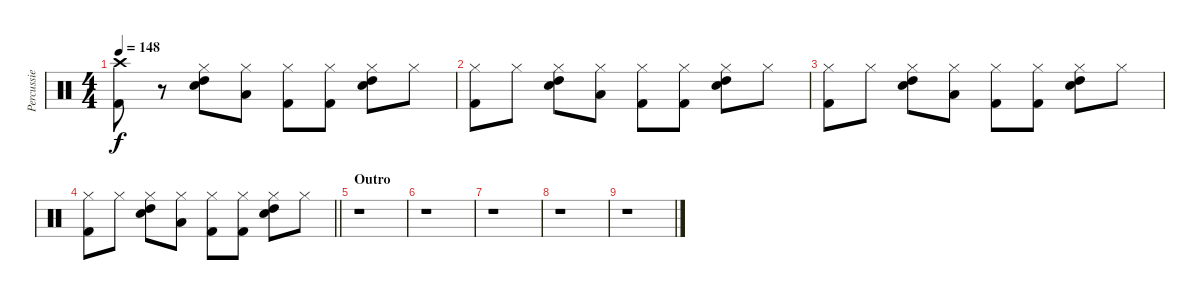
\track ("Percussie" "Percussie") {instrument percussion}
\staff {score}
\articulation defaults
\ts (4 4)
\tempo 148
\clef neutral
\ks c
("Crash high (hit)" "Kick (hit) 2").8{dy f} r.8 ("Hi-Hat (closed)" "Electric Snare (hit)" "High Tom (hit)").8 ("Hi-Hat (closed)" "Low Tom (hit)").8 ("Hi-Hat (closed)" "Kick (hit) 2").8 ("Hi-Hat (closed)" "Kick (hit) 2").8 ("Hi-Hat (closed)" "Electric Snare (hit)" "High Tom (hit)").8 "Hi-Hat (closed)".8 |
("Hi-Hat (closed)" "Kick (hit) 2").8 "Hi-Hat (closed)".8 ("Hi-Hat (closed)" "Electric Snare (hit)" "High Tom (hit)").8 ("Hi-Hat (closed)" "Low Tom (hit)").8 ("Hi-Hat (closed)" "Kick (hit) 2").8 ("Hi-Hat (closed)" "Kick (hit) 2").8 ("Hi-Hat (closed)" "Electric Snare (hit)" "High Tom (hit)").8 "Hi-Hat (closed)".8 |
("Hi-Hat (closed)" "Kick (hit) 2").8 "Hi-Hat (closed)".8 ("Hi-Hat (closed)" "Electric Snare (hit)" "High Tom (hit)").8 ("Hi-Hat (closed)" "Low Tom (hit)").8 ("Hi-Hat (closed)" "Kick (hit) 2").8 ("Hi-Hat (closed)" "Kick (hit) 2").8 ("Hi-Hat (closed)" "Electric Snare (hit)" "High Tom (hit)").8 "Hi-Hat (closed)".8 |
\barLineRight lightlight
("Hi-Hat (closed)" "Kick (hit) 2").8 "Hi-Hat (closed)".8 ("Hi-Hat (closed)" "Electric Snare (hit)" "High Tom (hit)").8 ("Hi-Hat (closed)" "Low Tom (hit)").8 ("Hi-Hat (closed)" "Kick (hit) 2").8 ("Hi-Hat (closed)" "Kick (hit) 2").8 ("Hi-Hat (closed)" "Electric Snare (hit)" "High Tom (hit)").8 "Hi-Hat (closed)".8 |
\section ("" "Outro")
r.1 |
r.1 |
r.1 |
r.1 |
r.1
